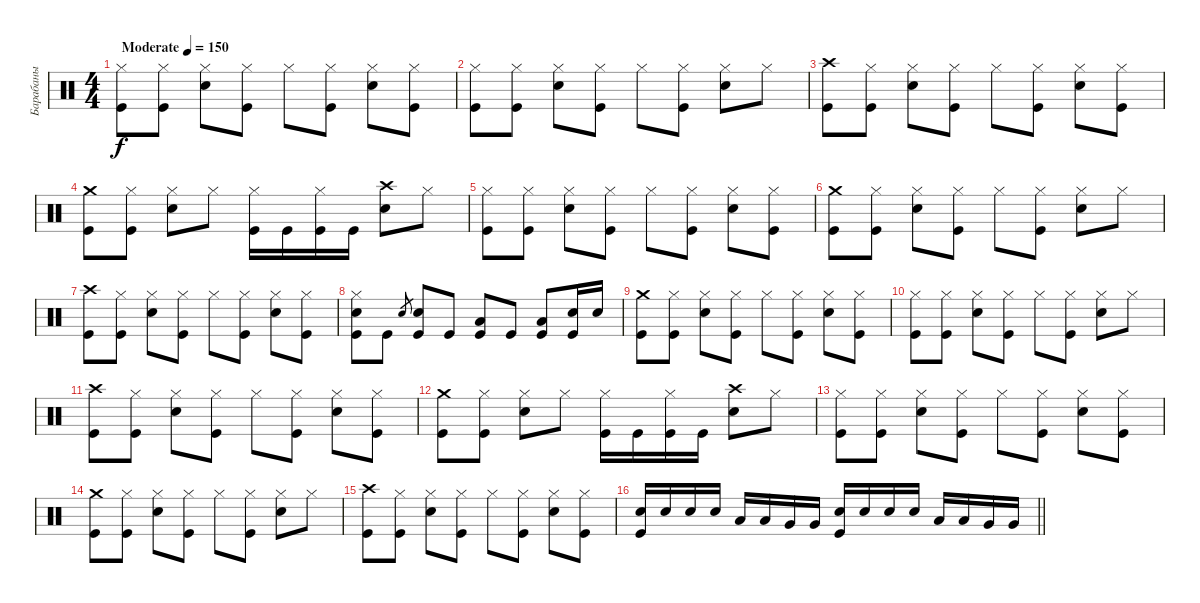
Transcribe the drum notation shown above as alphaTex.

\track ("Барабаны" "Барабаны") {instrument percussion}
\staff {score}
\articulation defaults
\ts (4 4)
\tempo (150 "Moderate")
\clef neutral
\ks c
("Hi-Hat (closed)" "Kick (hit)").8{dy f} ("Hi-Hat (closed)" "Kick (hit)").8 ("Hi-Hat (closed)" "Electric Snare (hit)").8 ("Hi-Hat (closed)" "Kick (hit)").8 "Hi-Hat (closed)".8 ("Hi-Hat (closed)" "Kick (hit)").8 ("Hi-Hat (closed)" "Electric Snare (hit)").8 ("Hi-Hat (closed)" "Kick (hit)").8 |
("Hi-Hat (closed)" "Kick (hit)").8 ("Hi-Hat (closed)" "Kick (hit)").8 ("Hi-Hat (closed)" "Electric Snare (hit)").8 ("Hi-Hat (closed)" "Kick (hit)").8 "Hi-Hat (closed)".8 ("Hi-Hat (closed)" "Kick (hit)").8 ("Hi-Hat (closed)" "Electric Snare (hit)").8 "Hi-Hat (closed)".8 |
("Crash high (hit)" "Kick (hit)").8 ("Hi-Hat (closed)" "Kick (hit)").8 ("Hi-Hat (closed)" "Electric Snare (hit)").8 ("Hi-Hat (closed)" "Kick (hit)").8 "Hi-Hat (closed)".8 ("Hi-Hat (closed)" "Kick (hit)").8 ("Hi-Hat (closed)" "Electric Snare (hit)").8 ("Hi-Hat (closed)" "Kick (hit)").8 |
("Crash medium (hit)" "Kick (hit)").8 ("Hi-Hat (closed)" "Kick (hit)").8 ("Hi-Hat (closed)" "Electric Snare (hit)").8 "Hi-Hat (closed)".8 ("Hi-Hat (closed)" "Kick (hit)").16 "Kick (hit)".16 ("Hi-Hat (closed)" "Kick (hit)").16 "Kick (hit)".16 ("Crash high (hit)" "Electric Snare (hit)").8 "Hi-Hat (closed)".8 |
("Hi-Hat (closed)" "Kick (hit)").8 ("Hi-Hat (closed)" "Kick (hit)").8 ("Hi-Hat (closed)" "Electric Snare (hit)").8 ("Hi-Hat (closed)" "Kick (hit)").8 "Hi-Hat (closed)".8 ("Hi-Hat (closed)" "Kick (hit)").8 ("Hi-Hat (closed)" "Electric Snare (hit)").8 ("Hi-Hat (closed)" "Kick (hit)").8 |
("Crash medium (hit)" "Kick (hit)").8 ("Hi-Hat (closed)" "Kick (hit)").8 ("Hi-Hat (closed)" "Electric Snare (hit)").8 ("Hi-Hat (closed)" "Kick (hit)").8 "Hi-Hat (closed)".8 ("Hi-Hat (closed)" "Kick (hit)").8 ("Hi-Hat (closed)" "Electric Snare (hit)").8 "Hi-Hat (closed)".8 |
("Crash high (hit)" "Kick (hit)").8 ("Hi-Hat (closed)" "Kick (hit)").8 ("Hi-Hat (closed)" "Electric Snare (hit)").8 ("Hi-Hat (closed)" "Kick (hit)").8 "Hi-Hat (closed)".8 ("Hi-Hat (closed)" "Kick (hit)").8 ("Hi-Hat (closed)" "Electric Snare (hit)").8 ("Hi-Hat (closed)" "Kick (hit)").8 |
("Hi-Hat (closed)" "Electric Snare (hit)" "Kick (hit)").8 "Kick (hit)".8 "Snare (hit) 2"{h}.8{gr} ("Snare (hit) 2" "Kick (hit)").8 "Kick (hit)".8 ("Low Tom (hit)" "Kick (hit)").8 "Kick (hit)".8 ("Low Tom (hit)" "Kick (hit)").8 ("Snare (hit) 2" "Kick (hit)").16 "Snare (hit) 2".16 |
("Crash medium (hit)" "Kick (hit)").8 ("Hi-Hat (closed)" "Kick (hit)").8 ("Hi-Hat (closed)" "Electric Snare (hit)").8 ("Hi-Hat (closed)" "Kick (hit)").8 "Hi-Hat (closed)".8 ("Hi-Hat (closed)" "Kick (hit)").8 ("Hi-Hat (closed)" "Electric Snare (hit)").8 ("Hi-Hat (closed)" "Kick (hit)").8 |
("Hi-Hat (closed)" "Kick (hit)").8 ("Hi-Hat (closed)" "Kick (hit)").8 ("Hi-Hat (closed)" "Electric Snare (hit)").8 ("Hi-Hat (closed)" "Kick (hit)").8 "Hi-Hat (closed)".8 ("Hi-Hat (closed)" "Kick (hit)").8 ("Hi-Hat (closed)" "Electric Snare (hit)").8 "Hi-Hat (closed)".8 |
("Crash high (hit)" "Kick (hit)").8 ("Hi-Hat (closed)" "Kick (hit)").8 ("Hi-Hat (closed)" "Electric Snare (hit)").8 ("Hi-Hat (closed)" "Kick (hit)").8 "Hi-Hat (closed)".8 ("Hi-Hat (closed)" "Kick (hit)").8 ("Hi-Hat (closed)" "Electric Snare (hit)").8 ("Hi-Hat (closed)" "Kick (hit)").8 |
("Crash medium (hit)" "Kick (hit)").8 ("Hi-Hat (closed)" "Kick (hit)").8 ("Hi-Hat (closed)" "Electric Snare (hit)").8 "Hi-Hat (closed)".8 ("Hi-Hat (closed)" "Kick (hit)").16 "Kick (hit)".16 ("Hi-Hat (closed)" "Kick (hit)").16 "Kick (hit)".16 ("Crash high (hit)" "Electric Snare (hit)").8 "Hi-Hat (closed)".8 |
("Hi-Hat (closed)" "Kick (hit)").8 ("Hi-Hat (closed)" "Kick (hit)").8 ("Hi-Hat (closed)" "Electric Snare (hit)").8 ("Hi-Hat (closed)" "Kick (hit)").8 "Hi-Hat (closed)".8 ("Hi-Hat (closed)" "Kick (hit)").8 ("Hi-Hat (closed)" "Electric Snare (hit)").8 ("Hi-Hat (closed)" "Kick (hit)").8 |
("Crash medium (hit)" "Kick (hit)").8 ("Hi-Hat (closed)" "Kick (hit)").8 ("Hi-Hat (closed)" "Electric Snare (hit)").8 ("Hi-Hat (closed)" "Kick (hit)").8 "Hi-Hat (closed)".8 ("Hi-Hat (closed)" "Kick (hit)").8 ("Hi-Hat (closed)" "Electric Snare (hit)").8 "Hi-Hat (closed)".8 |
("Crash high (hit)" "Kick (hit)").8 ("Hi-Hat (closed)" "Kick (hit)").8 ("Hi-Hat (closed)" "Electric Snare (hit)").8 ("Hi-Hat (closed)" "Kick (hit)").8 "Hi-Hat (closed)".8 ("Hi-Hat (closed)" "Kick (hit)").8 ("Hi-Hat (closed)" "Electric Snare (hit)").8 ("Hi-Hat (closed)" "Kick (hit)").8 |
\barLineRight lightlight
("Electric Snare (hit)" "Kick (hit)").16 "Electric Snare (hit)".16 "Electric Snare (hit)".16 "Electric Snare (hit)".16 "Low Tom (hit)".16 "Low Tom (hit)".16 "Very Low Tom (hit)".16 "Very Low Tom (hit)".16 ("Electric Snare (hit)" "Kick (hit)").16 "Electric Snare (hit)".16 "Electric Snare (hit)".16 "Electric Snare (hit)".16 "Low Tom (hit)".16 "Low Tom (hit)".16 "Very Low Tom (hit)".16 "Very Low Tom (hit)".16
